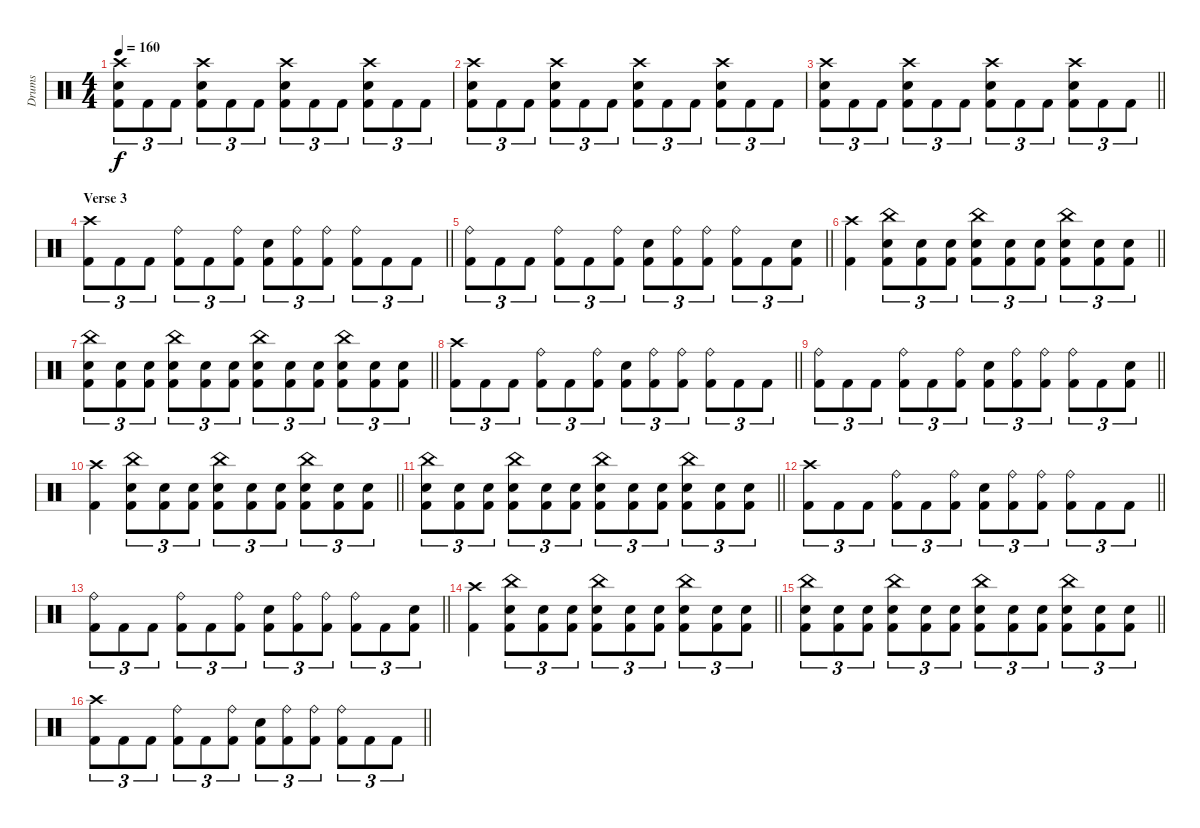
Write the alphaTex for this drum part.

\track ("Drums" "Drums") {instrument percussion}
\staff {score}
\articulation defaults
\ts (4 4)
\tempo 160
\clef neutral
\ks c
("Crash high (hit)" "Electric Snare (hit)" "Kick (hit) 2").8{tu (3 2) dy f} "Kick (hit) 2".8{tu (3 2)} "Kick (hit) 2".8{tu (3 2)} ("Crash high (hit)" "Electric Snare (hit)" "Kick (hit) 2").8{tu (3 2)} "Kick (hit) 2".8{tu (3 2)} "Kick (hit) 2".8{tu (3 2)} ("Crash high (hit)" "Electric Snare (hit)" "Kick (hit) 2").8{tu (3 2)} "Kick (hit) 2".8{tu (3 2)} "Kick (hit) 2".8{tu (3 2)} ("Crash high (hit)" "Electric Snare (hit)" "Kick (hit) 2").8{tu (3 2)} "Kick (hit) 2".8{tu (3 2)} "Kick (hit) 2".8{tu (3 2)} |
("Crash high (hit)" "Electric Snare (hit)" "Kick (hit) 2").8{tu (3 2)} "Kick (hit) 2".8{tu (3 2)} "Kick (hit) 2".8{tu (3 2)} ("Crash high (hit)" "Electric Snare (hit)" "Kick (hit) 2").8{tu (3 2)} "Kick (hit) 2".8{tu (3 2)} "Kick (hit) 2".8{tu (3 2)} ("Crash high (hit)" "Electric Snare (hit)" "Kick (hit) 2").8{tu (3 2)} "Kick (hit) 2".8{tu (3 2)} "Kick (hit) 2".8{tu (3 2)} ("Crash high (hit)" "Electric Snare (hit)" "Kick (hit) 2").8{tu (3 2)} "Kick (hit) 2".8{tu (3 2)} "Kick (hit) 2".8{tu (3 2)} |
\barLineRight lightlight
("Crash high (hit)" "Electric Snare (hit)" "Kick (hit) 2").8{tu (3 2)} "Kick (hit) 2".8{tu (3 2)} "Kick (hit) 2".8{tu (3 2)} ("Crash high (hit)" "Electric Snare (hit)" "Kick (hit) 2").8{tu (3 2)} "Kick (hit) 2".8{tu (3 2)} "Kick (hit) 2".8{tu (3 2)} ("Crash high (hit)" "Electric Snare (hit)" "Kick (hit) 2").8{tu (3 2)} "Kick (hit) 2".8{tu (3 2)} "Kick (hit) 2".8{tu (3 2)} ("Crash high (hit)" "Electric Snare (hit)" "Kick (hit) 2").8{tu (3 2)} "Kick (hit) 2".8{tu (3 2)} "Kick (hit) 2".8{tu (3 2)} |
\section ("" "Verse 3")
\barLineRight lightlight
("Crash high (hit)" "Kick (hit) 2").8{tu (3 2)} "Kick (hit) 2".8{tu (3 2)} "Kick (hit) 2".8{tu (3 2)} ("Ride (bell)" "Kick (hit) 2").8{tu (3 2)} "Kick (hit) 2".8{tu (3 2)} ("Ride (bell)" "Kick (hit) 2").8{tu (3 2)} ("Electric Snare (hit)" "Kick (hit) 2").8{tu (3 2)} ("Ride (bell)" "Kick (hit) 2").8{tu (3 2)} ("Ride (bell)" "Kick (hit) 2").8{tu (3 2)} ("Ride (bell)" "Kick (hit) 2").8{tu (3 2)} "Kick (hit) 2".8{tu (3 2)} "Kick (hit) 2".8{tu (3 2)} |
\barLineRight lightlight
("Ride (bell)" "Kick (hit) 2").8{tu (3 2)} "Kick (hit) 2".8{tu (3 2)} "Kick (hit) 2".8{tu (3 2)} ("Ride (bell)" "Kick (hit) 2").8{tu (3 2)} "Kick (hit) 2".8{tu (3 2)} ("Ride (bell)" "Kick (hit) 2").8{tu (3 2)} ("Electric Snare (hit)" "Kick (hit) 2").8{tu (3 2)} ("Ride (bell)" "Kick (hit) 2").8{tu (3 2)} ("Ride (bell)" "Kick (hit) 2").8{tu (3 2)} ("Ride (bell)" "Kick (hit) 2").8{tu (3 2)} "Kick (hit) 2".8{tu (3 2)} ("Electric Snare (hit)" "Kick (hit) 2").8{tu (3 2)} |
\barLineRight lightlight
("Crash high (hit)" "Kick (hit) 2").4 ("China (hit)" "Electric Snare (hit)" "Kick (hit) 2").8{tu (3 2)} ("Electric Snare (hit)" "Kick (hit) 2").8{tu (3 2)} ("Electric Snare (hit)" "Kick (hit) 2").8{tu (3 2)} ("China (hit)" "Electric Snare (hit)" "Kick (hit) 2").8{tu (3 2)} ("Electric Snare (hit)" "Kick (hit) 2").8{tu (3 2)} ("Electric Snare (hit)" "Kick (hit) 2").8{tu (3 2)} ("China (hit)" "Electric Snare (hit)" "Kick (hit) 2").8{tu (3 2)} ("Electric Snare (hit)" "Kick (hit) 2").8{tu (3 2)} ("Electric Snare (hit)" "Kick (hit) 2").8{tu (3 2)} |
\barLineRight lightlight
("China (hit)" "Electric Snare (hit)" "Kick (hit) 2").8{tu (3 2)} ("Electric Snare (hit)" "Kick (hit) 2").8{tu (3 2)} ("Electric Snare (hit)" "Kick (hit) 2").8{tu (3 2)} ("China (hit)" "Electric Snare (hit)" "Kick (hit) 2").8{tu (3 2)} ("Electric Snare (hit)" "Kick (hit) 2").8{tu (3 2)} ("Electric Snare (hit)" "Kick (hit) 2").8{tu (3 2)} ("China (hit)" "Electric Snare (hit)" "Kick (hit) 2").8{tu (3 2)} ("Electric Snare (hit)" "Kick (hit) 2").8{tu (3 2)} ("Electric Snare (hit)" "Kick (hit) 2").8{tu (3 2)} ("China (hit)" "Electric Snare (hit)" "Kick (hit) 2").8{tu (3 2)} ("Electric Snare (hit)" "Kick (hit) 2").8{tu (3 2)} ("Electric Snare (hit)" "Kick (hit) 2").8{tu (3 2)} |
\barLineRight lightlight
("Crash high (hit)" "Kick (hit) 2").8{tu (3 2)} "Kick (hit) 2".8{tu (3 2)} "Kick (hit) 2".8{tu (3 2)} ("Ride (bell)" "Kick (hit) 2").8{tu (3 2)} "Kick (hit) 2".8{tu (3 2)} ("Ride (bell)" "Kick (hit) 2").8{tu (3 2)} ("Electric Snare (hit)" "Kick (hit) 2").8{tu (3 2)} ("Ride (bell)" "Kick (hit) 2").8{tu (3 2)} ("Ride (bell)" "Kick (hit) 2").8{tu (3 2)} ("Ride (bell)" "Kick (hit) 2").8{tu (3 2)} "Kick (hit) 2".8{tu (3 2)} "Kick (hit) 2".8{tu (3 2)} |
\barLineRight lightlight
("Ride (bell)" "Kick (hit) 2").8{tu (3 2)} "Kick (hit) 2".8{tu (3 2)} "Kick (hit) 2".8{tu (3 2)} ("Ride (bell)" "Kick (hit) 2").8{tu (3 2)} "Kick (hit) 2".8{tu (3 2)} ("Ride (bell)" "Kick (hit) 2").8{tu (3 2)} ("Electric Snare (hit)" "Kick (hit) 2").8{tu (3 2)} ("Ride (bell)" "Kick (hit) 2").8{tu (3 2)} ("Ride (bell)" "Kick (hit) 2").8{tu (3 2)} ("Ride (bell)" "Kick (hit) 2").8{tu (3 2)} "Kick (hit) 2".8{tu (3 2)} ("Electric Snare (hit)" "Kick (hit) 2").8{tu (3 2)} |
\barLineRight lightlight
("Crash high (hit)" "Kick (hit) 2").4 ("China (hit)" "Electric Snare (hit)" "Kick (hit) 2").8{tu (3 2)} ("Electric Snare (hit)" "Kick (hit) 2").8{tu (3 2)} ("Electric Snare (hit)" "Kick (hit) 2").8{tu (3 2)} ("China (hit)" "Electric Snare (hit)" "Kick (hit) 2").8{tu (3 2)} ("Electric Snare (hit)" "Kick (hit) 2").8{tu (3 2)} ("Electric Snare (hit)" "Kick (hit) 2").8{tu (3 2)} ("China (hit)" "Electric Snare (hit)" "Kick (hit) 2").8{tu (3 2)} ("Electric Snare (hit)" "Kick (hit) 2").8{tu (3 2)} ("Electric Snare (hit)" "Kick (hit) 2").8{tu (3 2)} |
\barLineRight lightlight
("China (hit)" "Electric Snare (hit)" "Kick (hit) 2").8{tu (3 2)} ("Electric Snare (hit)" "Kick (hit) 2").8{tu (3 2)} ("Electric Snare (hit)" "Kick (hit) 2").8{tu (3 2)} ("China (hit)" "Electric Snare (hit)" "Kick (hit) 2").8{tu (3 2)} ("Electric Snare (hit)" "Kick (hit) 2").8{tu (3 2)} ("Electric Snare (hit)" "Kick (hit) 2").8{tu (3 2)} ("China (hit)" "Electric Snare (hit)" "Kick (hit) 2").8{tu (3 2)} ("Electric Snare (hit)" "Kick (hit) 2").8{tu (3 2)} ("Electric Snare (hit)" "Kick (hit) 2").8{tu (3 2)} ("China (hit)" "Electric Snare (hit)" "Kick (hit) 2").8{tu (3 2)} ("Electric Snare (hit)" "Kick (hit) 2").8{tu (3 2)} ("Electric Snare (hit)" "Kick (hit) 2").8{tu (3 2)} |
\barLineRight lightlight
("Crash high (hit)" "Kick (hit) 2").8{tu (3 2)} "Kick (hit) 2".8{tu (3 2)} "Kick (hit) 2".8{tu (3 2)} ("Ride (bell)" "Kick (hit) 2").8{tu (3 2)} "Kick (hit) 2".8{tu (3 2)} ("Ride (bell)" "Kick (hit) 2").8{tu (3 2)} ("Electric Snare (hit)" "Kick (hit) 2").8{tu (3 2)} ("Ride (bell)" "Kick (hit) 2").8{tu (3 2)} ("Ride (bell)" "Kick (hit) 2").8{tu (3 2)} ("Ride (bell)" "Kick (hit) 2").8{tu (3 2)} "Kick (hit) 2".8{tu (3 2)} "Kick (hit) 2".8{tu (3 2)} |
\barLineRight lightlight
("Ride (bell)" "Kick (hit) 2").8{tu (3 2)} "Kick (hit) 2".8{tu (3 2)} "Kick (hit) 2".8{tu (3 2)} ("Ride (bell)" "Kick (hit) 2").8{tu (3 2)} "Kick (hit) 2".8{tu (3 2)} ("Ride (bell)" "Kick (hit) 2").8{tu (3 2)} ("Electric Snare (hit)" "Kick (hit) 2").8{tu (3 2)} ("Ride (bell)" "Kick (hit) 2").8{tu (3 2)} ("Ride (bell)" "Kick (hit) 2").8{tu (3 2)} ("Ride (bell)" "Kick (hit) 2").8{tu (3 2)} "Kick (hit) 2".8{tu (3 2)} ("Electric Snare (hit)" "Kick (hit) 2").8{tu (3 2)} |
\barLineRight lightlight
("Crash high (hit)" "Kick (hit) 2").4 ("China (hit)" "Electric Snare (hit)" "Kick (hit) 2").8{tu (3 2)} ("Electric Snare (hit)" "Kick (hit) 2").8{tu (3 2)} ("Electric Snare (hit)" "Kick (hit) 2").8{tu (3 2)} ("China (hit)" "Electric Snare (hit)" "Kick (hit) 2").8{tu (3 2)} ("Electric Snare (hit)" "Kick (hit) 2").8{tu (3 2)} ("Electric Snare (hit)" "Kick (hit) 2").8{tu (3 2)} ("China (hit)" "Electric Snare (hit)" "Kick (hit) 2").8{tu (3 2)} ("Electric Snare (hit)" "Kick (hit) 2").8{tu (3 2)} ("Electric Snare (hit)" "Kick (hit) 2").8{tu (3 2)} |
\barLineRight lightlight
("China (hit)" "Electric Snare (hit)" "Kick (hit) 2").8{tu (3 2)} ("Electric Snare (hit)" "Kick (hit) 2").8{tu (3 2)} ("Electric Snare (hit)" "Kick (hit) 2").8{tu (3 2)} ("China (hit)" "Electric Snare (hit)" "Kick (hit) 2").8{tu (3 2)} ("Electric Snare (hit)" "Kick (hit) 2").8{tu (3 2)} ("Electric Snare (hit)" "Kick (hit) 2").8{tu (3 2)} ("China (hit)" "Electric Snare (hit)" "Kick (hit) 2").8{tu (3 2)} ("Electric Snare (hit)" "Kick (hit) 2").8{tu (3 2)} ("Electric Snare (hit)" "Kick (hit) 2").8{tu (3 2)} ("China (hit)" "Electric Snare (hit)" "Kick (hit) 2").8{tu (3 2)} ("Electric Snare (hit)" "Kick (hit) 2").8{tu (3 2)} ("Electric Snare (hit)" "Kick (hit) 2").8{tu (3 2)} |
\barLineRight lightlight
("Crash high (hit)" "Kick (hit) 2").8{tu (3 2)} "Kick (hit) 2".8{tu (3 2)} "Kick (hit) 2".8{tu (3 2)} ("Ride (bell)" "Kick (hit) 2").8{tu (3 2)} "Kick (hit) 2".8{tu (3 2)} ("Ride (bell)" "Kick (hit) 2").8{tu (3 2)} ("Electric Snare (hit)" "Kick (hit) 2").8{tu (3 2)} ("Ride (bell)" "Kick (hit) 2").8{tu (3 2)} ("Ride (bell)" "Kick (hit) 2").8{tu (3 2)} ("Ride (bell)" "Kick (hit) 2").8{tu (3 2)} "Kick (hit) 2".8{tu (3 2)} "Kick (hit) 2".8{tu (3 2)}
